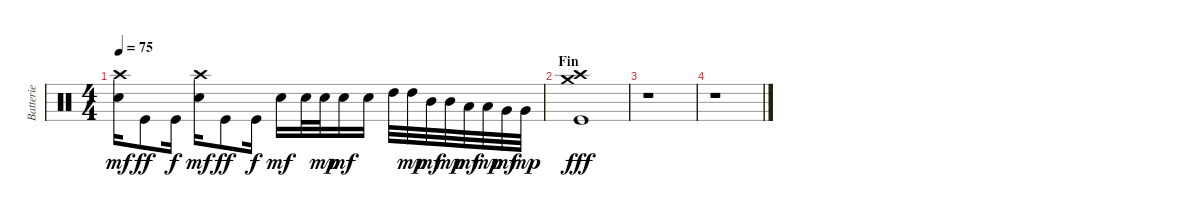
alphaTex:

\track ("Batterie" "Batterie") {instrument percussion}
\staff {score}
\articulation defaults
\ts (4 4)
\tempo 75
\clef neutral
\ks c
("Crash high (hit)" "Electric Snare (hit)").16{dy mf} "Kick (hit)".8{dy ff} "Kick (hit)".16{dy f} ("Crash high (hit)" "Electric Snare (hit)").16{dy mf} "Kick (hit)".8{dy ff} "Kick (hit)".16{dy f} "Electric Snare (hit)".16{dy mf} "Electric Snare (hit)".32 "Electric Snare (hit)".32{dy mp} "Electric Snare (hit)".16{dy mf} "Electric Snare (hit)".16 "High Tom (hit)".32 "High Tom (hit)".32{dy mp} "Mid Tom (hit)".32{dy mf} "Mid Tom (hit)".32{dy mp} "Low Tom (hit)".32{dy mf} "Low Tom (hit)".32{dy mp} "Very Low Tom (hit)".32{dy mf} "Very Low Tom (hit)".32{dy mp} |
\section ("" "Fin")
("Crash medium (hit)" "Crash high (hit)" "Kick (hit)").1{dy fff} |
r.1 |
r.1
